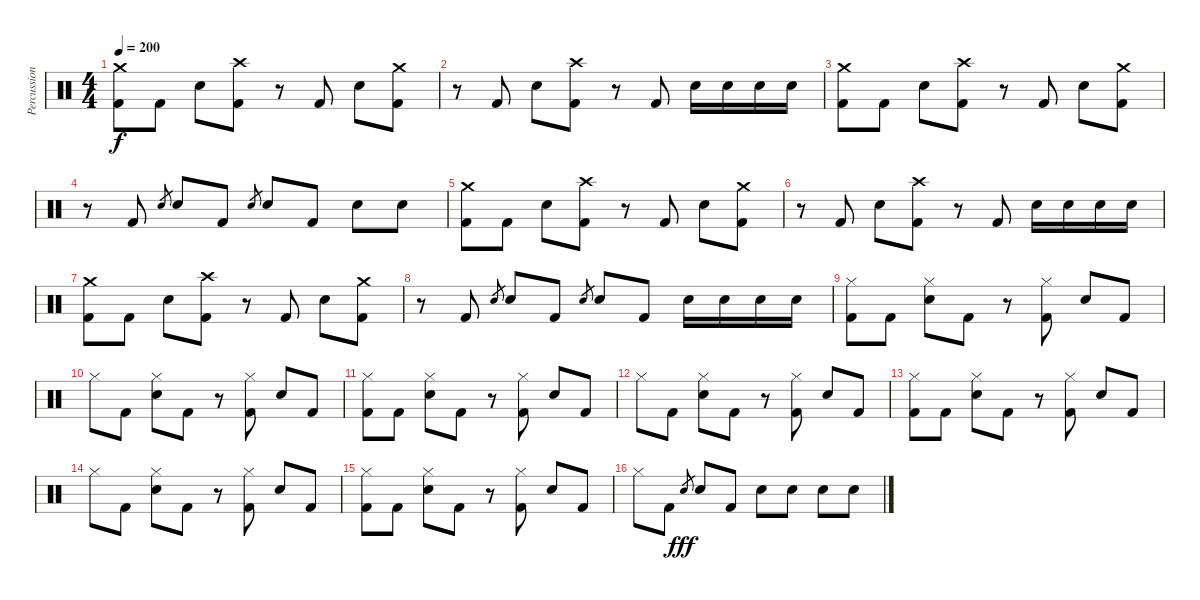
\track ("Percussion" "Percussion") {instrument percussion}
\staff {score}
\articulation defaults
\ts (4 4)
\tempo 200
\clef neutral
\ks c
("Crash medium (hit)" "Kick (hit) 2").8{dy f} "Kick (hit) 2".8 "Snare (hit) 2".8 ("Crash high (hit)" "Kick (hit) 2").8 r.8 "Kick (hit) 2".8 "Snare (hit) 2".8 ("Crash medium (hit)" "Kick (hit) 2").8 |
r.8 "Kick (hit) 2".8 "Snare (hit) 2".8 ("Crash high (hit)" "Kick (hit) 2").8 r.8 "Kick (hit) 2".8 "Snare (hit) 2".16 "Snare (hit) 2".16 "Snare (hit) 2".16 "Snare (hit) 2".16 |
("Crash medium (hit)" "Kick (hit) 2").8 "Kick (hit) 2".8 "Snare (hit) 2".8 ("Crash high (hit)" "Kick (hit) 2").8 r.8 "Kick (hit) 2".8 "Snare (hit) 2".8 ("Crash medium (hit)" "Kick (hit) 2").8 |
r.8 "Kick (hit) 2".8 "Snare (hit) 2".8{gr} "Snare (hit) 2".8 "Kick (hit) 2".8 "Snare (hit) 2".8{gr} "Snare (hit) 2".8 "Kick (hit) 2".8 "Snare (hit) 2".8 "Snare (hit) 2".8 |
("Crash medium (hit)" "Kick (hit) 2").8 "Kick (hit) 2".8 "Snare (hit) 2".8 ("Crash high (hit)" "Kick (hit) 2").8 r.8 "Kick (hit) 2".8 "Snare (hit) 2".8 ("Crash medium (hit)" "Kick (hit) 2").8 |
r.8 "Kick (hit) 2".8 "Snare (hit) 2".8 ("Crash high (hit)" "Kick (hit) 2").8 r.8 "Kick (hit) 2".8 "Snare (hit) 2".16 "Snare (hit) 2".16 "Snare (hit) 2".16 "Snare (hit) 2".16 |
("Crash medium (hit)" "Kick (hit) 2").8 "Kick (hit) 2".8 "Snare (hit) 2".8 ("Crash high (hit)" "Kick (hit) 2").8 r.8 "Kick (hit) 2".8 "Snare (hit) 2".8 ("Crash medium (hit)" "Kick (hit) 2").8 |
r.8 "Kick (hit) 2".8 "Snare (hit) 2".8{gr} "Snare (hit) 2".8 "Kick (hit) 2".8 "Snare (hit) 2".8{gr} "Snare (hit) 2".8 "Kick (hit) 2".8 "Snare (hit) 2".16 "Snare (hit) 2".16 "Snare (hit) 2".16 "Snare (hit) 2".16 |
("Hi-Hat (closed)" "Kick (hit) 2").8 "Kick (hit) 2".8 ("Hi-Hat (closed)" "Snare (hit) 2").8 "Kick (hit) 2".8 r.8 ("Hi-Hat (closed)" "Kick (hit) 2").8 "Snare (hit) 2".8 "Kick (hit) 2".8 |
"Hi-Hat (closed)".8 "Kick (hit) 2".8 ("Hi-Hat (closed)" "Snare (hit) 2").8 "Kick (hit) 2".8 r.8 ("Hi-Hat (closed)" "Kick (hit) 2").8 "Snare (hit) 2".8 "Kick (hit) 2".8 |
("Hi-Hat (closed)" "Kick (hit) 2").8 "Kick (hit) 2".8 ("Hi-Hat (closed)" "Snare (hit) 2").8 "Kick (hit) 2".8 r.8 ("Hi-Hat (closed)" "Kick (hit) 2").8 "Snare (hit) 2".8 "Kick (hit) 2".8 |
"Hi-Hat (closed)".8 "Kick (hit) 2".8 ("Hi-Hat (closed)" "Snare (hit) 2").8 "Kick (hit) 2".8 r.8 ("Hi-Hat (closed)" "Kick (hit) 2").8 "Snare (hit) 2".8 "Kick (hit) 2".8 |
("Hi-Hat (closed)" "Kick (hit) 2").8 "Kick (hit) 2".8 ("Hi-Hat (closed)" "Snare (hit) 2").8 "Kick (hit) 2".8 r.8 ("Hi-Hat (closed)" "Kick (hit) 2").8 "Snare (hit) 2".8 "Kick (hit) 2".8 |
"Hi-Hat (closed)".8 "Kick (hit) 2".8 ("Hi-Hat (closed)" "Snare (hit) 2").8 "Kick (hit) 2".8 r.8 ("Hi-Hat (closed)" "Kick (hit) 2").8 "Snare (hit) 2".8 "Kick (hit) 2".8 |
("Hi-Hat (closed)" "Kick (hit) 2").8 "Kick (hit) 2".8 ("Hi-Hat (closed)" "Snare (hit) 2").8 "Kick (hit) 2".8 r.8 ("Hi-Hat (closed)" "Kick (hit) 2").8 "Snare (hit) 2".8 "Kick (hit) 2".8 |
"Hi-Hat (closed)".8 "Kick (hit) 2".8 "Snare (hit) 2".8{gr dy fff} "Snare (hit) 2".8 "Kick (hit) 2".8 "Snare (hit) 2".8 "Snare (hit) 2".8 "Snare (hit) 2".8 "Snare (hit) 2".8
